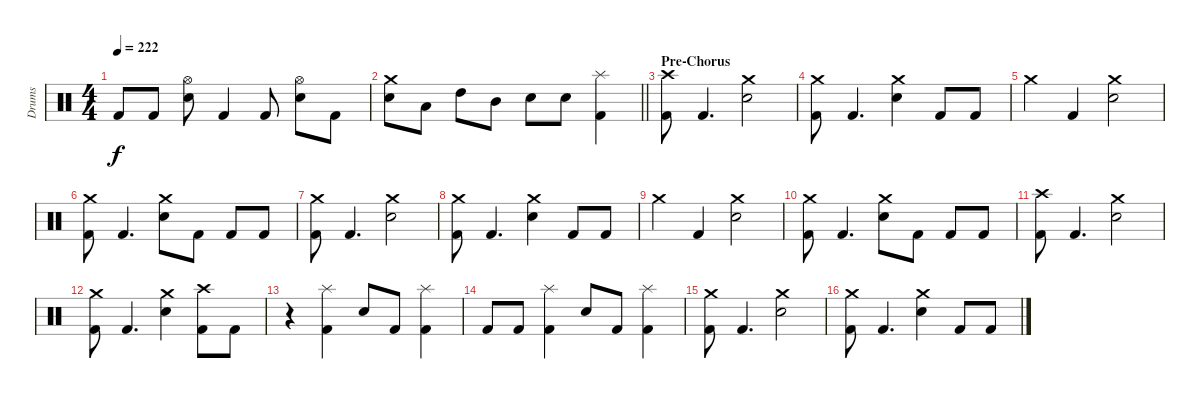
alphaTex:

\track ("Drums" "Drums") {instrument percussion}
\staff {score}
\articulation defaults
\ts (4 4)
\tempo 222
\clef neutral
\ks c "Kick (hit) 2".8{dy f} "Kick (hit) 2".8
("Hi-Hat (open)" "Snare (hit) 2").8 "Kick (hit) 2".4 "Kick (hit) 2".8 ("Hi-Hat (open)" "Snare (hit) 2").8 "Kick (hit) 2".8 |
\barLineRight lightlight
("Crash medium (hit)" "Snare (hit) 2").8 "Low Tom (hit)".8 "High Tom (hit)".8 "Mid Tom (hit)".8 "Snare (hit) 2".8 "Snare (hit) 2".8 ("Splash (hit)" "Kick (hit) 2").4 |
\section ("" "Pre-Chorus")
("Crash high (hit)" "Kick (hit) 2").8 "Kick (hit) 2".4{d} ("Crash medium (hit)" "Snare (hit) 2").2 |
("Crash medium (hit)" "Kick (hit) 2").8 "Kick (hit) 2".4{d} ("Crash medium (hit)" "Snare (hit) 2").4 "Kick (hit) 2".8 "Kick (hit) 2".8 |
"Crash medium (hit)".4 "Kick (hit) 2".4 ("Crash medium (hit)" "Snare (hit) 2").2 |
("Crash medium (hit)" "Kick (hit) 2").8 "Kick (hit) 2".4{d} ("Crash medium (hit)" "Snare (hit) 2").8 "Kick (hit) 2".8 "Kick (hit) 2".8 "Kick (hit) 2".8 |
("Crash medium (hit)" "Kick (hit) 2").8 "Kick (hit) 2".4{d} ("Crash medium (hit)" "Snare (hit) 2").2 |
("Crash medium (hit)" "Kick (hit) 2").8 "Kick (hit) 2".4{d} ("Crash medium (hit)" "Snare (hit) 2").4 "Kick (hit) 2".8 "Kick (hit) 2".8 |
"Crash medium (hit)".4 "Kick (hit) 2".4 ("Crash medium (hit)" "Snare (hit) 2").2 |
("Crash medium (hit)" "Kick (hit) 2").8 "Kick (hit) 2".4{d} ("Crash medium (hit)" "Snare (hit) 2").8 "Kick (hit) 2".8 "Kick (hit) 2".8 "Kick (hit) 2".8 |
("Crash high (hit)" "Kick (hit) 2").8 "Kick (hit) 2".4{d} ("Crash medium (hit)" "Snare (hit) 2").2 |
("Crash medium (hit)" "Kick (hit) 2").8 "Kick (hit) 2".4{d} ("Crash medium (hit)" "Snare (hit) 2").4 ("Crash high (hit)" "Kick (hit) 2").8 "Kick (hit) 2".8 |
r.4 ("Splash (hit)" "Kick (hit) 2").4 "Snare (hit) 2".8 "Kick (hit) 2".8 ("Splash (hit)" "Kick (hit) 2").4 |
"Kick (hit) 2".8 "Kick (hit) 2".8 ("Splash (hit)" "Kick (hit) 2").4 "Snare (hit) 2".8 "Kick (hit) 2".8 ("Splash (hit)" "Kick (hit) 2").4 |
("Crash medium (hit)" "Kick (hit) 2").8 "Kick (hit) 2".4{d} ("Crash medium (hit)" "Snare (hit) 2").2 |
("Crash medium (hit)" "Kick (hit) 2").8 "Kick (hit) 2".4{d} ("Crash medium (hit)" "Snare (hit) 2").4 "Kick (hit) 2".8 "Kick (hit) 2".8
